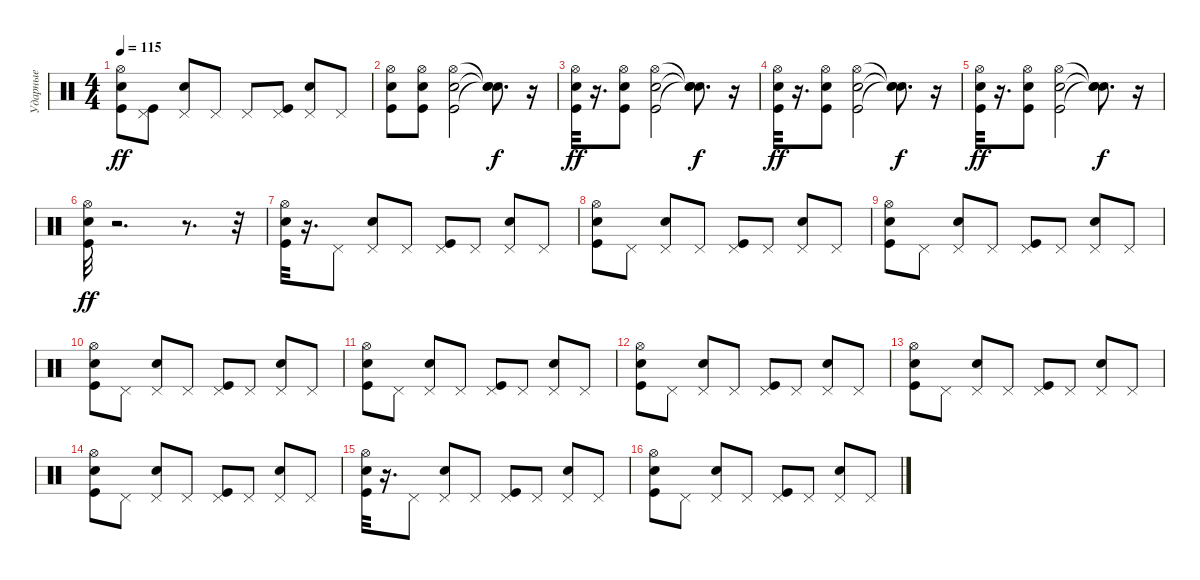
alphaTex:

\track ("Ударные" "Ударные") {instrument percussion}
\staff {score}
\articulation defaults
\ts (4 4)
\tempo 115
\clef neutral
\ks c
("Kick (hit)" "Electric Snare (hit)" "Hi-Hat (open)").8{dy ff} ("Kick (hit)" "Pedal Hi-Hat (hit)").8 ("Electric Snare (hit)" "Pedal Hi-Hat (hit)").8 "Pedal Hi-Hat (hit)".8 "Pedal Hi-Hat (hit)".8 ("Kick (hit)" "Pedal Hi-Hat (hit)").8 ("Electric Snare (hit)" "Pedal Hi-Hat (hit)").8 "Pedal Hi-Hat (hit)".8 |
("Kick (hit)" "Electric Snare (hit)" "Hi-Hat (open)").8 ("Kick (hit)" "Electric Snare (hit)" "Hi-Hat (open)").8 ("Kick (hit)" "Electric Snare (hit)" "Hi-Hat (open)").2 ("Snare (hit)"{t} "Snare (hit)"{t} "Snare (hit)"{t}).8{d dy f} r.16 |
("Kick (hit)" "Electric Snare (hit)" "Hi-Hat (open)").32{dy ff} r.16{d} ("Kick (hit)" "Electric Snare (hit)" "Hi-Hat (open)").8 ("Kick (hit)" "Electric Snare (hit)" "Hi-Hat (open)").2 ("Snare (hit)"{t} "Snare (hit)"{t} "Snare (hit)"{t}).8{d dy f} r.16 |
("Kick (hit)" "Electric Snare (hit)" "Hi-Hat (open)").32{dy ff} r.16{d} ("Kick (hit)" "Electric Snare (hit)" "Hi-Hat (open)").8 ("Kick (hit)" "Electric Snare (hit)" "Hi-Hat (open)").2 ("Snare (hit)"{t} "Snare (hit)"{t} "Snare (hit)"{t}).8{d dy f} r.16 |
("Kick (hit)" "Electric Snare (hit)" "Hi-Hat (open)").32{dy ff} r.16{d} ("Kick (hit)" "Electric Snare (hit)" "Hi-Hat (open)").8 ("Kick (hit)" "Electric Snare (hit)" "Hi-Hat (open)").2 ("Snare (hit)"{t} "Snare (hit)"{t} "Snare (hit)"{t}).8{d dy f} r.16 |
("Kick (hit)" "Electric Snare (hit)" "Hi-Hat (open)").32{dy ff} r.2{d} r.8{d} r.32 |
("Kick (hit)" "Electric Snare (hit)" "Hi-Hat (open)").32 r.16{d} "Pedal Hi-Hat (hit)".8 ("Electric Snare (hit)" "Pedal Hi-Hat (hit)").8 "Pedal Hi-Hat (hit)".8 ("Kick (hit)" "Pedal Hi-Hat (hit)").8 "Pedal Hi-Hat (hit)".8 ("Electric Snare (hit)" "Pedal Hi-Hat (hit)").8 "Pedal Hi-Hat (hit)".8 |
("Kick (hit)" "Electric Snare (hit)" "Hi-Hat (open)").8 "Pedal Hi-Hat (hit)".8 ("Electric Snare (hit)" "Pedal Hi-Hat (hit)").8 "Pedal Hi-Hat (hit)".8 ("Kick (hit)" "Pedal Hi-Hat (hit)").8 "Pedal Hi-Hat (hit)".8 ("Electric Snare (hit)" "Pedal Hi-Hat (hit)").8 "Pedal Hi-Hat (hit)".8 |
("Kick (hit)" "Electric Snare (hit)" "Hi-Hat (open)").8 "Pedal Hi-Hat (hit)".8 ("Electric Snare (hit)" "Pedal Hi-Hat (hit)").8 "Pedal Hi-Hat (hit)".8 ("Kick (hit)" "Pedal Hi-Hat (hit)").8 "Pedal Hi-Hat (hit)".8 ("Electric Snare (hit)" "Pedal Hi-Hat (hit)").8 "Pedal Hi-Hat (hit)".8 |
("Kick (hit)" "Electric Snare (hit)" "Hi-Hat (open)").8 "Pedal Hi-Hat (hit)".8 ("Electric Snare (hit)" "Pedal Hi-Hat (hit)").8 "Pedal Hi-Hat (hit)".8 ("Kick (hit)" "Pedal Hi-Hat (hit)").8 "Pedal Hi-Hat (hit)".8 ("Electric Snare (hit)" "Pedal Hi-Hat (hit)").8 "Pedal Hi-Hat (hit)".8 |
("Kick (hit)" "Electric Snare (hit)" "Hi-Hat (open)").8 "Pedal Hi-Hat (hit)".8 ("Electric Snare (hit)" "Pedal Hi-Hat (hit)").8 "Pedal Hi-Hat (hit)".8 ("Kick (hit)" "Pedal Hi-Hat (hit)").8 "Pedal Hi-Hat (hit)".8 ("Electric Snare (hit)" "Pedal Hi-Hat (hit)").8 "Pedal Hi-Hat (hit)".8 |
("Kick (hit)" "Electric Snare (hit)" "Hi-Hat (open)").8 "Pedal Hi-Hat (hit)".8 ("Electric Snare (hit)" "Pedal Hi-Hat (hit)").8 "Pedal Hi-Hat (hit)".8 ("Kick (hit)" "Pedal Hi-Hat (hit)").8 "Pedal Hi-Hat (hit)".8 ("Electric Snare (hit)" "Pedal Hi-Hat (hit)").8 "Pedal Hi-Hat (hit)".8 |
("Kick (hit)" "Electric Snare (hit)" "Hi-Hat (open)").8 "Pedal Hi-Hat (hit)".8 ("Electric Snare (hit)" "Pedal Hi-Hat (hit)").8 "Pedal Hi-Hat (hit)".8 ("Kick (hit)" "Pedal Hi-Hat (hit)").8 "Pedal Hi-Hat (hit)".8 ("Electric Snare (hit)" "Pedal Hi-Hat (hit)").8 "Pedal Hi-Hat (hit)".8 |
("Kick (hit)" "Electric Snare (hit)" "Hi-Hat (open)").8 "Pedal Hi-Hat (hit)".8 ("Electric Snare (hit)" "Pedal Hi-Hat (hit)").8 "Pedal Hi-Hat (hit)".8 ("Kick (hit)" "Pedal Hi-Hat (hit)").8 "Pedal Hi-Hat (hit)".8 ("Electric Snare (hit)" "Pedal Hi-Hat (hit)").8 "Pedal Hi-Hat (hit)".8 |
("Kick (hit)" "Electric Snare (hit)" "Hi-Hat (open)").32 r.16{d} "Pedal Hi-Hat (hit)".8 ("Electric Snare (hit)" "Pedal Hi-Hat (hit)").8 "Pedal Hi-Hat (hit)".8 ("Kick (hit)" "Pedal Hi-Hat (hit)").8 "Pedal Hi-Hat (hit)".8 ("Electric Snare (hit)" "Pedal Hi-Hat (hit)").8 "Pedal Hi-Hat (hit)".8 |
("Kick (hit)" "Electric Snare (hit)" "Hi-Hat (open)").8 "Pedal Hi-Hat (hit)".8 ("Electric Snare (hit)" "Pedal Hi-Hat (hit)").8 "Pedal Hi-Hat (hit)".8 ("Kick (hit)" "Pedal Hi-Hat (hit)").8 "Pedal Hi-Hat (hit)".8 ("Electric Snare (hit)" "Pedal Hi-Hat (hit)").8 "Pedal Hi-Hat (hit)".8
